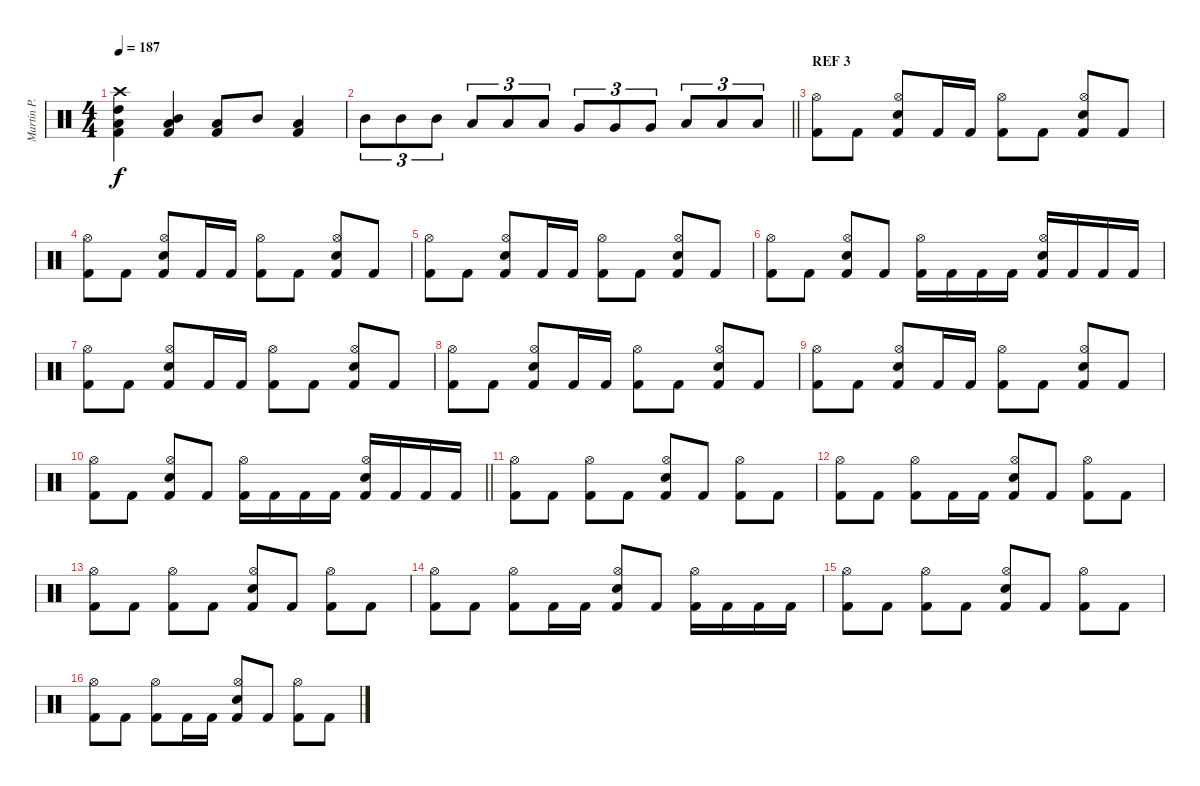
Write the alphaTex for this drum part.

\track ("Martin P." "Martin P.") {instrument percussion}
\staff {score}
\articulation defaults
\ts (4 4)
\tempo 187
\clef neutral
\ks c
("Kick (hit) 2" "High Tom (hit)" "Low Floor Tom (hit)" "Crash high (hit)").4{dy f} ("Kick (hit) 2" "Mid Tom (hit)" "Low Floor Tom (hit)").4 ("Kick (hit) 2" "Low Floor Tom (hit)").8 "Mid Tom (hit)".8 ("Kick (hit) 2" "Low Floor Tom (hit)").4 |
\barLineRight lightlight "Mid Tom (hit)".8{tu (3 2)} "Mid Tom (hit)".8{tu (3 2)} "Mid Tom (hit)".8{tu (3 2)} "Low Tom (hit)".8{tu (3 2)} "Low Tom (hit)".8{tu (3 2)} "Low Tom (hit)".8{tu (3 2)} "Very Low Tom (hit)".8{tu (3 2)} "Very Low Tom (hit)".8{tu (3 2)} "Very Low Tom (hit)".8{tu (3 2)} "Low Floor Tom (hit)".8{tu (3 2)} "Low Floor Tom (hit)".8{tu (3 2)} "Low Floor Tom (hit)".8{tu (3 2)}
|
\section ("" "REF 3")
("Hi-Hat (open)" "Kick (hit) 2").8 "Kick (hit) 2".8 ("Hi-Hat (open)" "Electric Snare (hit)" "Kick (hit) 2").8 "Kick (hit) 2".16 "Kick (hit) 2".16 ("Hi-Hat (open)" "Kick (hit) 2").8 "Kick (hit) 2".8 ("Hi-Hat (open)" "Electric Snare (hit)" "Kick (hit) 2").8 "Kick (hit) 2".8 |
("Hi-Hat (open)" "Kick (hit) 2").8 "Kick (hit) 2".8 ("Hi-Hat (open)" "Electric Snare (hit)" "Kick (hit) 2").8 "Kick (hit) 2".16 "Kick (hit) 2".16 ("Hi-Hat (open)" "Kick (hit) 2").8 "Kick (hit) 2".8 ("Hi-Hat (open)" "Electric Snare (hit)" "Kick (hit) 2").8 "Kick (hit) 2".8 |
("Hi-Hat (open)" "Kick (hit) 2").8 "Kick (hit) 2".8 ("Hi-Hat (open)" "Electric Snare (hit)" "Kick (hit) 2").8 "Kick (hit) 2".16 "Kick (hit) 2".16 ("Hi-Hat (open)" "Kick (hit) 2").8 "Kick (hit) 2".8 ("Hi-Hat (open)" "Electric Snare (hit)" "Kick (hit) 2").8 "Kick (hit) 2".8 |
("Hi-Hat (open)" "Kick (hit) 2").8 "Kick (hit) 2".8 ("Hi-Hat (open)" "Electric Snare (hit)" "Kick (hit) 2").8 "Kick (hit) 2".8 ("Hi-Hat (open)" "Kick (hit) 2").16 "Kick (hit) 2".16 "Kick (hit) 2".16 "Kick (hit) 2".16 ("Hi-Hat (open)" "Electric Snare (hit)" "Kick (hit) 2").16 "Kick (hit) 2".16 "Kick (hit) 2".16 "Kick (hit) 2".16 |
("Hi-Hat (open)" "Kick (hit) 2").8 "Kick (hit) 2".8 ("Hi-Hat (open)" "Electric Snare (hit)" "Kick (hit) 2").8 "Kick (hit) 2".16 "Kick (hit) 2".16 ("Hi-Hat (open)" "Kick (hit) 2").8 "Kick (hit) 2".8 ("Hi-Hat (open)" "Electric Snare (hit)" "Kick (hit) 2").8 "Kick (hit) 2".8 |
("Hi-Hat (open)" "Kick (hit) 2").8 "Kick (hit) 2".8 ("Hi-Hat (open)" "Electric Snare (hit)" "Kick (hit) 2").8 "Kick (hit) 2".16 "Kick (hit) 2".16 ("Hi-Hat (open)" "Kick (hit) 2").8 "Kick (hit) 2".8 ("Hi-Hat (open)" "Electric Snare (hit)" "Kick (hit) 2").8 "Kick (hit) 2".8 |
("Hi-Hat (open)" "Kick (hit) 2").8 "Kick (hit) 2".8 ("Hi-Hat (open)" "Electric Snare (hit)" "Kick (hit) 2").8 "Kick (hit) 2".16 "Kick (hit) 2".16 ("Hi-Hat (open)" "Kick (hit) 2").8 "Kick (hit) 2".8 ("Hi-Hat (open)" "Electric Snare (hit)" "Kick (hit) 2").8 "Kick (hit) 2".8 |
\barLineRight lightlight
("Hi-Hat (open)" "Kick (hit) 2").8 "Kick (hit) 2".8 ("Hi-Hat (open)" "Electric Snare (hit)" "Kick (hit) 2").8 "Kick (hit) 2".8 ("Hi-Hat (open)" "Kick (hit) 2").16 "Kick (hit) 2".16 "Kick (hit) 2".16 "Kick (hit) 2".16 ("Hi-Hat (open)" "Electric Snare (hit)" "Kick (hit) 2").16 "Kick (hit) 2".16 "Kick (hit) 2".16 "Kick (hit) 2".16 |
("Hi-Hat (open)" "Kick (hit) 2").8 "Kick (hit) 2".8 ("Hi-Hat (open)" "Kick (hit) 2").8 "Kick (hit) 2".8 ("Hi-Hat (open)" "Electric Snare (hit)" "Kick (hit) 2").8 "Kick (hit) 2".8 ("Hi-Hat (open)" "Kick (hit) 2").8 "Kick (hit) 2".8 |
("Hi-Hat (open)" "Kick (hit) 2").8 "Kick (hit) 2".8 ("Hi-Hat (open)" "Kick (hit) 2").8 "Kick (hit) 2".16 "Kick (hit) 2".16 ("Hi-Hat (open)" "Electric Snare (hit)" "Kick (hit) 2").8 "Kick (hit) 2".8 ("Hi-Hat (open)" "Kick (hit) 2").8 "Kick (hit) 2".8 |
("Hi-Hat (open)" "Kick (hit) 2").8 "Kick (hit) 2".8 ("Hi-Hat (open)" "Kick (hit) 2").8 "Kick (hit) 2".8 ("Hi-Hat (open)" "Electric Snare (hit)" "Kick (hit) 2").8 "Kick (hit) 2".8 ("Hi-Hat (open)" "Kick (hit) 2").8 "Kick (hit) 2".8 |
("Hi-Hat (open)" "Kick (hit) 2").8 "Kick (hit) 2".8 ("Hi-Hat (open)" "Kick (hit) 2").8 "Kick (hit) 2".16 "Kick (hit) 2".16 ("Hi-Hat (open)" "Electric Snare (hit)" "Kick (hit) 2").8 "Kick (hit) 2".8 ("Hi-Hat (open)" "Kick (hit) 2").16 "Kick (hit) 2".16 "Kick (hit) 2".16 "Kick (hit) 2".16 |
("Hi-Hat (open)" "Kick (hit) 2").8 "Kick (hit) 2".8 ("Hi-Hat (open)" "Kick (hit) 2").8 "Kick (hit) 2".8 ("Hi-Hat (open)" "Electric Snare (hit)" "Kick (hit) 2").8 "Kick (hit) 2".8 ("Hi-Hat (open)" "Kick (hit) 2").8 "Kick (hit) 2".8 |
("Hi-Hat (open)" "Kick (hit) 2").8 "Kick (hit) 2".8 ("Hi-Hat (open)" "Kick (hit) 2").8 "Kick (hit) 2".16 "Kick (hit) 2".16 ("Hi-Hat (open)" "Electric Snare (hit)" "Kick (hit) 2").8 "Kick (hit) 2".8 ("Hi-Hat (open)" "Kick (hit) 2").8 "Kick (hit) 2".8
